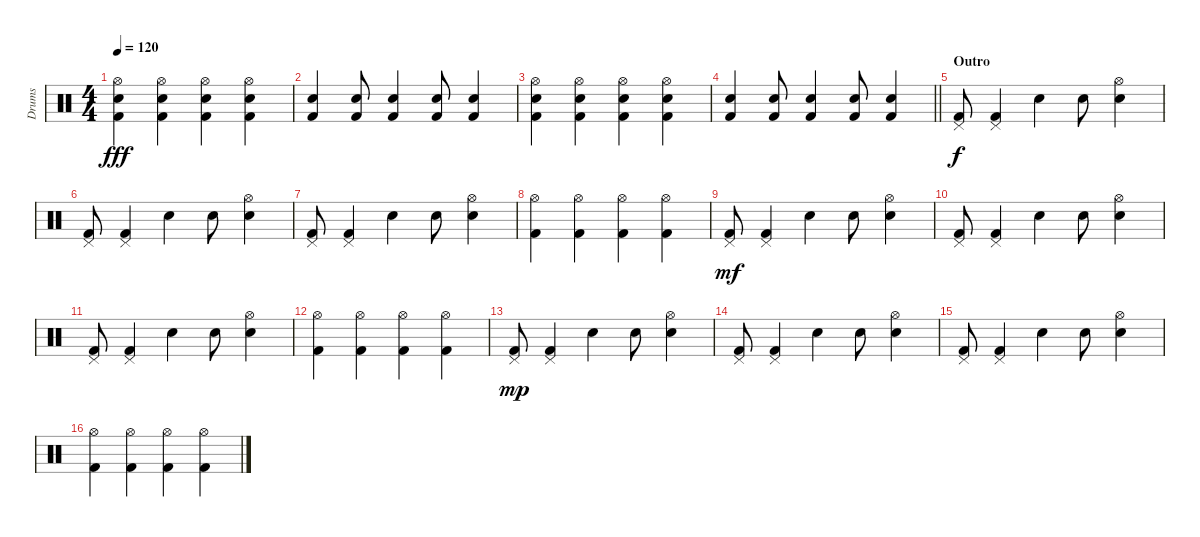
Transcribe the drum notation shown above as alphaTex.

\track ("Drums" "Drums") {instrument percussion}
\staff {score}
\articulation defaults
\ts (4 4)
\tempo 120
\clef neutral
\ks c
("Hi-Hat (open)" "Snare (hit) 2" "Kick (hit) 2").4{dy fff} ("Hi-Hat (open)" "Snare (hit) 2" "Kick (hit) 2").4 ("Hi-Hat (open)" "Snare (hit) 2" "Kick (hit) 2").4 ("Hi-Hat (open)" "Snare (hit) 2" "Kick (hit) 2").4 |
("Kick (hit) 2" "Snare (hit) 2").4 ("Kick (hit) 2" "Snare (hit) 2").8 ("Kick (hit) 2" "Snare (hit) 2").4 ("Kick (hit) 2" "Snare (hit) 2").8 ("Kick (hit) 2" "Snare (hit) 2").4 |
("Hi-Hat (open)" "Snare (hit) 2" "Kick (hit) 2").4 ("Hi-Hat (open)" "Snare (hit) 2" "Kick (hit) 2").4 ("Hi-Hat (open)" "Snare (hit) 2" "Kick (hit) 2").4 ("Hi-Hat (open)" "Snare (hit) 2" "Kick (hit) 2").4 |
\barLineRight lightlight
("Kick (hit) 2" "Snare (hit) 2").4 ("Kick (hit) 2" "Snare (hit) 2").8 ("Kick (hit) 2" "Snare (hit) 2").4 ("Kick (hit) 2" "Snare (hit) 2").8 ("Kick (hit) 2" "Snare (hit) 2").4 |
\section ("" "Outro")
("Pedal Hi-Hat (hit)" "Kick (hit) 2").8{dy f} ("Pedal Hi-Hat (hit)" "Kick (hit) 2").4 "Electric Snare (hit)".4 "Electric Snare (hit)".8 ("Hi-Hat (open)" "Snare (hit) 2").4 |
("Pedal Hi-Hat (hit)" "Kick (hit) 2").8 ("Pedal Hi-Hat (hit)" "Kick (hit) 2").4 "Electric Snare (hit)".4 "Electric Snare (hit)".8 ("Hi-Hat (open)" "Snare (hit) 2").4 |
("Pedal Hi-Hat (hit)" "Kick (hit) 2").8 ("Pedal Hi-Hat (hit)" "Kick (hit) 2").4 "Electric Snare (hit)".4 "Electric Snare (hit)".8 ("Hi-Hat (open)" "Snare (hit) 2").4 |
("Hi-Hat (open)" "Kick (hit) 2").4 ("Hi-Hat (open)" "Kick (hit) 2").4 ("Hi-Hat (open)" "Kick (hit) 2").4 ("Hi-Hat (open)" "Kick (hit) 2").4 |
("Pedal Hi-Hat (hit)" "Kick (hit) 2").8{dy mf} ("Pedal Hi-Hat (hit)" "Kick (hit) 2").4 "Electric Snare (hit)".4 "Electric Snare (hit)".8 ("Hi-Hat (open)" "Snare (hit) 2").4 |
("Pedal Hi-Hat (hit)" "Kick (hit) 2").8 ("Pedal Hi-Hat (hit)" "Kick (hit) 2").4 "Electric Snare (hit)".4 "Electric Snare (hit)".8 ("Hi-Hat (open)" "Snare (hit) 2").4 |
("Pedal Hi-Hat (hit)" "Kick (hit) 2").8 ("Pedal Hi-Hat (hit)" "Kick (hit) 2").4 "Electric Snare (hit)".4 "Electric Snare (hit)".8 ("Hi-Hat (open)" "Snare (hit) 2").4 |
("Hi-Hat (open)" "Kick (hit) 2").4 ("Hi-Hat (open)" "Kick (hit) 2").4 ("Hi-Hat (open)" "Kick (hit) 2").4 ("Hi-Hat (open)" "Kick (hit) 2").4 |
("Pedal Hi-Hat (hit)" "Kick (hit) 2").8{dy mp} ("Pedal Hi-Hat (hit)" "Kick (hit) 2").4 "Electric Snare (hit)".4 "Electric Snare (hit)".8 ("Hi-Hat (open)" "Snare (hit) 2").4 |
("Pedal Hi-Hat (hit)" "Kick (hit) 2").8 ("Pedal Hi-Hat (hit)" "Kick (hit) 2").4 "Electric Snare (hit)".4 "Electric Snare (hit)".8 ("Hi-Hat (open)" "Snare (hit) 2").4 |
("Pedal Hi-Hat (hit)" "Kick (hit) 2").8 ("Pedal Hi-Hat (hit)" "Kick (hit) 2").4 "Electric Snare (hit)".4 "Electric Snare (hit)".8 ("Hi-Hat (open)" "Snare (hit) 2").4 |
("Hi-Hat (open)" "Kick (hit) 2").4 ("Hi-Hat (open)" "Kick (hit) 2").4 ("Hi-Hat (open)" "Kick (hit) 2").4 ("Hi-Hat (open)" "Kick (hit) 2").4
